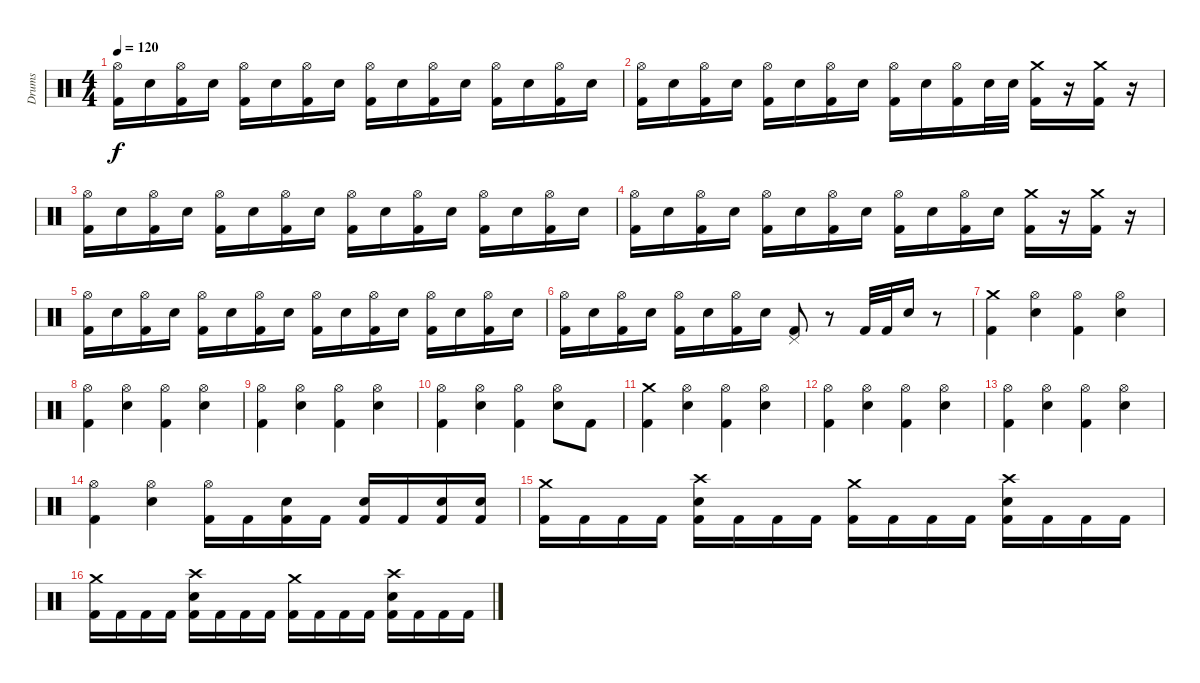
\track ("Drums" "Drums") {instrument percussion}
\staff {score}
\articulation defaults
\ts (4 4)
\tempo 120
\clef neutral
\ks c
("Hi-Hat (open)" "Kick (hit) 2").16{dy f} "Snare (hit) 2".16 ("Hi-Hat (open)" "Kick (hit) 2").16 "Snare (hit) 2".16 ("Hi-Hat (open)" "Kick (hit) 2").16 "Snare (hit) 2".16 ("Hi-Hat (open)" "Kick (hit) 2").16 "Snare (hit) 2".16 ("Hi-Hat (open)" "Kick (hit) 2").16 "Snare (hit) 2".16 ("Hi-Hat (open)" "Kick (hit) 2").16 "Snare (hit) 2".16 ("Hi-Hat (open)" "Kick (hit) 2").16 "Snare (hit) 2".16 ("Hi-Hat (open)" "Kick (hit) 2").16 "Snare (hit) 2".16 |
("Hi-Hat (open)" "Kick (hit) 2").16 "Snare (hit) 2".16 ("Hi-Hat (open)" "Kick (hit) 2").16 "Snare (hit) 2".16 ("Hi-Hat (open)" "Kick (hit) 2").16 "Snare (hit) 2".16 ("Hi-Hat (open)" "Kick (hit) 2").16 "Snare (hit) 2".16 ("Hi-Hat (open)" "Kick (hit) 2").16 "Snare (hit) 2".16 ("Hi-Hat (open)" "Kick (hit) 2").16 "Snare (hit) 2".32 "Snare (hit) 2".32 ("Crash medium (hit)" "Kick (hit) 2").16 r.16 ("Crash medium (hit)" "Kick (hit) 2").16 r.16 |
("Hi-Hat (open)" "Kick (hit) 2").16 "Snare (hit) 2".16 ("Hi-Hat (open)" "Kick (hit) 2").16 "Snare (hit) 2".16 ("Hi-Hat (open)" "Kick (hit) 2").16 "Snare (hit) 2".16 ("Hi-Hat (open)" "Kick (hit) 2").16 "Snare (hit) 2".16 ("Hi-Hat (open)" "Kick (hit) 2").16 "Snare (hit) 2".16 ("Hi-Hat (open)" "Kick (hit) 2").16 "Snare (hit) 2".16 ("Hi-Hat (open)" "Kick (hit) 2").16 "Snare (hit) 2".16 ("Hi-Hat (open)" "Kick (hit) 2").16 "Snare (hit) 2".16 |
("Hi-Hat (open)" "Kick (hit) 2").16 "Snare (hit) 2".16 ("Hi-Hat (open)" "Kick (hit) 2").16 "Snare (hit) 2".16 ("Hi-Hat (open)" "Kick (hit) 2").16 "Snare (hit) 2".16 ("Hi-Hat (open)" "Kick (hit) 2").16 "Snare (hit) 2".16 ("Hi-Hat (open)" "Kick (hit) 2").16 "Snare (hit) 2".16 ("Hi-Hat (open)" "Kick (hit) 2").16 "Snare (hit) 2".16 ("Crash medium (hit)" "Kick (hit) 2").16 r.16 ("Crash medium (hit)" "Kick (hit) 2").16 r.16 |
("Hi-Hat (open)" "Kick (hit) 2").16 "Snare (hit) 2".16 ("Hi-Hat (open)" "Kick (hit) 2").16 "Snare (hit) 2".16 ("Hi-Hat (open)" "Kick (hit) 2").16 "Snare (hit) 2".16 ("Hi-Hat (open)" "Kick (hit) 2").16 "Snare (hit) 2".16 ("Hi-Hat (open)" "Kick (hit) 2").16 "Snare (hit) 2".16 ("Hi-Hat (open)" "Kick (hit) 2").16 "Snare (hit) 2".16 ("Hi-Hat (open)" "Kick (hit) 2").16 "Snare (hit) 2".16 ("Hi-Hat (open)" "Kick (hit) 2").16 "Snare (hit) 2".16 |
("Hi-Hat (open)" "Kick (hit) 2").16 "Snare (hit) 2".16 ("Hi-Hat (open)" "Kick (hit) 2").16 "Snare (hit) 2".16 ("Hi-Hat (open)" "Kick (hit) 2").16 "Snare (hit) 2".16 ("Hi-Hat (open)" "Kick (hit) 2").16 "Snare (hit) 2".16 ("Pedal Hi-Hat (hit)" "Kick (hit) 2").8 r.8 "Kick (hit) 2".32 "Kick (hit) 2".32 "Snare (hit) 2".16 r.8 |
("Crash medium (hit)" "Kick (hit) 2").4 ("Hi-Hat (open)" "Snare (hit) 2").4 ("Hi-Hat (open)" "Kick (hit) 2").4 ("Hi-Hat (open)" "Snare (hit) 2").4 |
("Hi-Hat (open)" "Kick (hit) 2").4 ("Hi-Hat (open)" "Snare (hit) 2").4 ("Hi-Hat (open)" "Kick (hit) 2").4 ("Hi-Hat (open)" "Snare (hit) 2").4 |
("Hi-Hat (open)" "Kick (hit) 2").4 ("Hi-Hat (open)" "Snare (hit) 2").4 ("Hi-Hat (open)" "Kick (hit) 2").4 ("Hi-Hat (open)" "Snare (hit) 2").4 |
("Hi-Hat (open)" "Kick (hit) 2").4 ("Hi-Hat (open)" "Snare (hit) 2").4 ("Hi-Hat (open)" "Kick (hit) 2").4 ("Hi-Hat (open)" "Snare (hit) 2").8 "Kick (hit) 2".8 |
("Crash medium (hit)" "Kick (hit) 2").4 ("Hi-Hat (open)" "Snare (hit) 2").4 ("Hi-Hat (open)" "Kick (hit) 2").4 ("Hi-Hat (open)" "Snare (hit) 2").4 |
("Hi-Hat (open)" "Kick (hit) 2").4 ("Hi-Hat (open)" "Snare (hit) 2").4 ("Hi-Hat (open)" "Kick (hit) 2").4 ("Hi-Hat (open)" "Snare (hit) 2").4 |
("Hi-Hat (open)" "Kick (hit) 2").4 ("Hi-Hat (open)" "Snare (hit) 2").4 ("Hi-Hat (open)" "Kick (hit) 2").4 ("Hi-Hat (open)" "Snare (hit) 2").4 |
("Hi-Hat (open)" "Kick (hit) 2").4 ("Hi-Hat (open)" "Snare (hit) 2").4 ("Hi-Hat (open)" "Kick (hit) 2").16 "Kick (hit) 2".16 ("Snare (hit) 2" "Kick (hit) 2").16 "Kick (hit) 2".16 ("Snare (hit) 2" "Kick (hit) 2").16 "Kick (hit) 2".16 ("Snare (hit) 2" "Kick (hit) 2").16 ("Snare (hit) 2" "Kick (hit) 2").16 |
("Crash medium (hit)" "Kick (hit) 2").16 "Kick (hit) 2".16 "Kick (hit) 2".16 "Kick (hit) 2".16 ("Crash high (hit)" "Snare (hit) 2" "Kick (hit) 2").16 "Kick (hit) 2".16 "Kick (hit) 2".16 "Kick (hit) 2".16 ("Crash medium (hit)" "Kick (hit) 2").16 "Kick (hit) 2".16 "Kick (hit) 2".16 "Kick (hit) 2".16 ("Crash high (hit)" "Snare (hit) 2" "Kick (hit) 2").16 "Kick (hit) 2".16 "Kick (hit) 2".16 "Kick (hit) 2".16 |
("Crash medium (hit)" "Kick (hit) 2").16 "Kick (hit) 2".16 "Kick (hit) 2".16 "Kick (hit) 2".16 ("Crash high (hit)" "Snare (hit) 2" "Kick (hit) 2").16 "Kick (hit) 2".16 "Kick (hit) 2".16 "Kick (hit) 2".16 ("Crash medium (hit)" "Kick (hit) 2").16 "Kick (hit) 2".16 "Kick (hit) 2".16 "Kick (hit) 2".16 ("Crash high (hit)" "Snare (hit) 2" "Kick (hit) 2").16 "Kick (hit) 2".16 "Kick (hit) 2".16 "Kick (hit) 2".16
